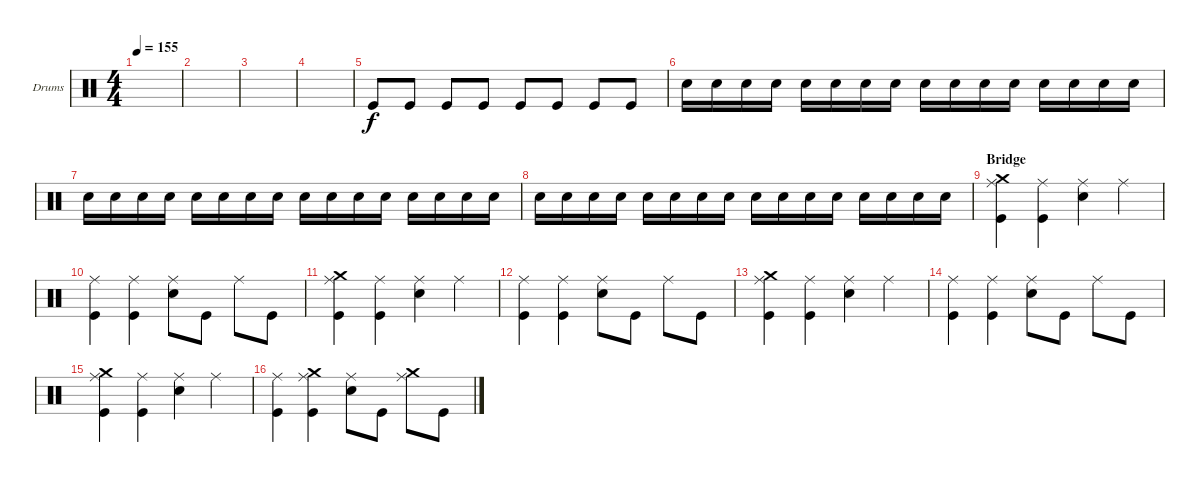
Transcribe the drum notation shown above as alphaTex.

\defaultSystemsLayout 4
\bracketExtendMode groupsimilarinstruments
\firstSystemTrackNameOrientation horizontal
\otherSystemsTrackNameOrientation horizontal
\track ("Drumkit" "Drums") {instrument percussion}
\staff {score}
\articulation defaults
\ts (4 4)
\tempo 155
\clef neutral
\scale
0.333333
\ks c
|
\scale
0.333333 |
\scale
0.333333 |
\scale
0.333333 |
\scale
0.333333 "Kick (hit)".8 "Kick (hit)".8 "Kick (hit)".8 "Kick (hit)".8 "Kick (hit)".8 "Kick (hit)".8 "Kick (hit)".8 "Kick (hit)".8 |
\scale
0.333333 "Snare (hit) 2".16 "Snare (hit) 2".16 "Snare (hit) 2".16 "Snare (hit) 2".16 "Snare (hit) 2".16 "Snare (hit) 2".16 "Snare (hit) 2".16 "Snare (hit) 2".16 "Snare (hit) 2".16 "Snare (hit) 2".16 "Snare (hit) 2".16 "Snare (hit) 2".16 "Snare (hit) 2".16 "Snare (hit) 2".16 "Snare (hit) 2".16 "Snare (hit) 2".16 |
\scale
0.333333 "Snare (hit) 2".16 "Snare (hit) 2".16 "Snare (hit) 2".16 "Snare (hit) 2".16 "Snare (hit) 2".16 "Snare (hit) 2".16 "Snare (hit) 2".16 "Snare (hit) 2".16 "Snare (hit) 2".16 "Snare (hit) 2".16 "Snare (hit) 2".16 "Snare (hit) 2".16 "Snare (hit) 2".16 "Snare (hit) 2".16 "Snare (hit) 2".16 "Snare (hit) 2".16 |
\scale
0.333333 "Snare (hit) 2".16 "Snare (hit) 2".16 "Snare (hit) 2".16 "Snare (hit) 2".16 "Snare (hit) 2".16 "Snare (hit) 2".16 "Snare (hit) 2".16 "Snare (hit) 2".16 "Snare (hit) 2".16 "Snare (hit) 2".16 "Snare (hit) 2".16 "Snare (hit) 2".16 "Snare (hit) 2".16 "Snare (hit) 2".16 "Snare (hit) 2".16 "Snare (hit) 2".16 |
\section ("" "Bridge")
\scale
0.333333 ("Crash medium (hit)" "Ride (middle)" "Kick (hit)").4 ("Ride (middle)" "Kick (hit)").4 ("Ride (middle)" "Snare (hit) 2").4 "Ride (middle)".4 |
\scale
0.333333 ("Ride (middle)" "Kick (hit)").4 ("Ride (middle)" "Kick (hit)").4 ("Ride (middle)" "Snare (hit) 2").8 "Kick (hit)".8 "Ride (middle)".8 "Kick (hit)".8 |
\scale
0.333333 ("Crash medium (hit)" "Ride (middle)" "Kick (hit)").4 ("Ride (middle)" "Kick (hit)").4 ("Ride (middle)" "Snare (hit) 2").4 "Ride (middle)".4 |
\scale
0.333333 ("Ride (middle)" "Kick (hit)").4 ("Ride (middle)" "Kick (hit)").4 ("Ride (middle)" "Snare (hit) 2").8 "Kick (hit)".8 "Ride (middle)".8 "Kick (hit)".8 |
\scale
0.333333 ("Crash medium (hit)" "Ride (middle)" "Kick (hit)").4 ("Ride (middle)" "Kick (hit)").4 ("Ride (middle)" "Snare (hit) 2").4 "Ride (middle)".4 |
\scale
0.333333 ("Ride (middle)" "Kick (hit)").4 ("Ride (middle)" "Kick (hit)").4 ("Ride (middle)" "Snare (hit) 2").8 "Kick (hit)".8 "Ride (middle)".8 "Kick (hit)".8 |
\scale
0.333333 ("Crash medium (hit)" "Ride (middle)" "Kick (hit)").4 ("Ride (middle)" "Kick (hit)").4 ("Ride (middle)" "Snare (hit) 2").4 "Ride (middle)".4 |
\scale
0.333333 ("Ride (middle)" "Kick (hit)").4 ("Ride (middle)" "Kick (hit)" "Crash medium (hit)").4 ("Ride (middle)" "Snare (hit) 2").8 "Kick (hit)".8 ("Ride (middle)" "Crash medium (hit)").8 "Kick (hit)".8
